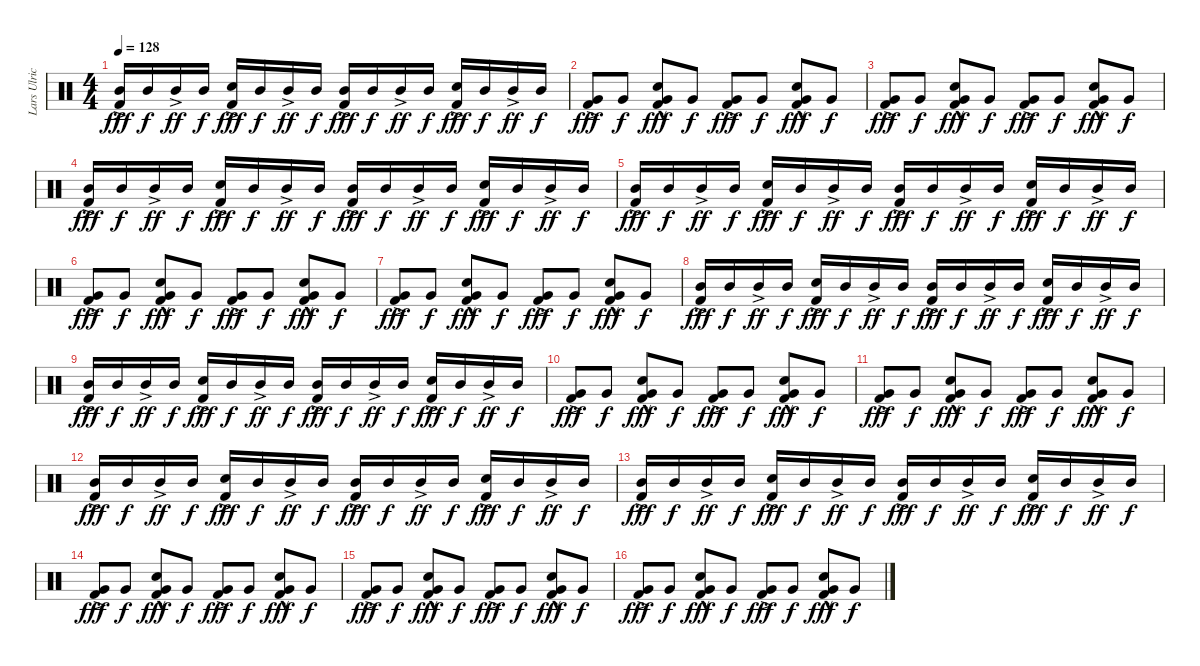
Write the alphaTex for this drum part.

\track ("Lars Ulrich (Drums)" "Lars Ulric") {instrument percussion}
\staff {score}
\articulation defaults
\ts (4 4)
\tempo 128
\clef neutral
\ks c
("Mid Tom (hit)"{ac} "Kick (hit) 2").16{dy fff} "Mid Tom (hit)".16{dy f} "Mid Tom (hit)"{ac}.16{dy ff} "Mid Tom (hit)".16{dy f} ("Electric Snare (hit)"{ac} "Kick (hit) 2").16{dy fff} "Mid Tom (hit)".16{dy f} "Mid Tom (hit)"{ac}.16{dy ff} "Mid Tom (hit)".16{dy f} ("Mid Tom (hit)"{ac} "Kick (hit) 2").16{dy fff} "Mid Tom (hit)".16{dy f} "Mid Tom (hit)"{ac}.16{dy ff} "Mid Tom (hit)".16{dy f} ("Electric Snare (hit)"{ac} "Kick (hit) 2").16{dy fff} "Mid Tom (hit)".16{dy f} "Mid Tom (hit)"{ac}.16{dy ff} "Mid Tom (hit)".16{dy f} |
("Very Low Tom (hit)"{ac} "Kick (hit) 2").8{dy fff} "Very Low Tom (hit)".8{dy f} ("Electric Snare (hit)"{hac} "Very Low Tom (hit)"{hac} "Kick (hit) 2").8{dy fff} "Very Low Tom (hit)".8{dy f} ("Very Low Tom (hit)"{ac} "Kick (hit) 2").8{dy fff} "Very Low Tom (hit)".8{dy f} ("Electric Snare (hit)"{hac} "Very Low Tom (hit)"{hac} "Kick (hit) 2").8{dy fff} "Very Low Tom (hit)".8{dy f} |
("Very Low Tom (hit)"{ac} "Kick (hit) 2").8{dy fff} "Very Low Tom (hit)".8{dy f} ("Electric Snare (hit)"{hac} "Very Low Tom (hit)"{hac} "Kick (hit) 2").8{dy fff} "Very Low Tom (hit)".8{dy f} ("Very Low Tom (hit)"{ac} "Kick (hit) 2").8{dy fff} "Very Low Tom (hit)".8{dy f} ("Electric Snare (hit)"{hac} "Very Low Tom (hit)"{hac} "Kick (hit) 2").8{dy fff} "Very Low Tom (hit)".8{dy f} |
("Mid Tom (hit)"{ac} "Kick (hit) 2").16{dy fff} "Mid Tom (hit)".16{dy f} "Mid Tom (hit)"{ac}.16{dy ff} "Mid Tom (hit)".16{dy f} ("Electric Snare (hit)"{ac} "Kick (hit) 2").16{dy fff} "Mid Tom (hit)".16{dy f} "Mid Tom (hit)"{ac}.16{dy ff} "Mid Tom (hit)".16{dy f} ("Mid Tom (hit)"{ac} "Kick (hit) 2").16{dy fff} "Mid Tom (hit)".16{dy f} "Mid Tom (hit)"{ac}.16{dy ff} "Mid Tom (hit)".16{dy f} ("Electric Snare (hit)"{ac} "Kick (hit) 2").16{dy fff} "Mid Tom (hit)".16{dy f} "Mid Tom (hit)"{ac}.16{dy ff} "Mid Tom (hit)".16{dy f} |
("Mid Tom (hit)"{ac} "Kick (hit) 2").16{dy fff} "Mid Tom (hit)".16{dy f} "Mid Tom (hit)"{ac}.16{dy ff} "Mid Tom (hit)".16{dy f} ("Electric Snare (hit)"{ac} "Kick (hit) 2").16{dy fff} "Mid Tom (hit)".16{dy f} "Mid Tom (hit)"{ac}.16{dy ff} "Mid Tom (hit)".16{dy f} ("Mid Tom (hit)"{ac} "Kick (hit) 2").16{dy fff} "Mid Tom (hit)".16{dy f} "Mid Tom (hit)"{ac}.16{dy ff} "Mid Tom (hit)".16{dy f} ("Electric Snare (hit)"{ac} "Kick (hit) 2").16{dy fff} "Mid Tom (hit)".16{dy f} "Mid Tom (hit)"{ac}.16{dy ff} "Mid Tom (hit)".16{dy f} |
("Very Low Tom (hit)"{ac} "Kick (hit) 2").8{dy fff} "Very Low Tom (hit)".8{dy f} ("Electric Snare (hit)"{hac} "Very Low Tom (hit)"{hac} "Kick (hit) 2").8{dy fff} "Very Low Tom (hit)".8{dy f} ("Very Low Tom (hit)"{ac} "Kick (hit) 2").8{dy fff} "Very Low Tom (hit)".8{dy f} ("Electric Snare (hit)"{hac} "Very Low Tom (hit)"{hac} "Kick (hit) 2").8{dy fff} "Very Low Tom (hit)".8{dy f} |
("Very Low Tom (hit)"{ac} "Kick (hit) 2").8{dy fff} "Very Low Tom (hit)".8{dy f} ("Electric Snare (hit)"{hac} "Very Low Tom (hit)"{hac} "Kick (hit) 2").8{dy fff} "Very Low Tom (hit)".8{dy f} ("Very Low Tom (hit)"{ac} "Kick (hit) 2").8{dy fff} "Very Low Tom (hit)".8{dy f} ("Electric Snare (hit)"{hac} "Very Low Tom (hit)"{hac} "Kick (hit) 2").8{dy fff} "Very Low Tom (hit)".8{dy f} |
("Mid Tom (hit)"{ac} "Kick (hit) 2").16{dy fff} "Mid Tom (hit)".16{dy f} "Mid Tom (hit)"{ac}.16{dy ff} "Mid Tom (hit)".16{dy f} ("Electric Snare (hit)"{ac} "Kick (hit) 2").16{dy fff} "Mid Tom (hit)".16{dy f} "Mid Tom (hit)"{ac}.16{dy ff} "Mid Tom (hit)".16{dy f} ("Mid Tom (hit)"{ac} "Kick (hit) 2").16{dy fff} "Mid Tom (hit)".16{dy f} "Mid Tom (hit)"{ac}.16{dy ff} "Mid Tom (hit)".16{dy f} ("Electric Snare (hit)"{ac} "Kick (hit) 2").16{dy fff} "Mid Tom (hit)".16{dy f} "Mid Tom (hit)"{ac}.16{dy ff} "Mid Tom (hit)".16{dy f} |
("Mid Tom (hit)"{ac} "Kick (hit) 2").16{dy fff} "Mid Tom (hit)".16{dy f} "Mid Tom (hit)"{ac}.16{dy ff} "Mid Tom (hit)".16{dy f} ("Electric Snare (hit)"{ac} "Kick (hit) 2").16{dy fff} "Mid Tom (hit)".16{dy f} "Mid Tom (hit)"{ac}.16{dy ff} "Mid Tom (hit)".16{dy f} ("Mid Tom (hit)"{ac} "Kick (hit) 2").16{dy fff} "Mid Tom (hit)".16{dy f} "Mid Tom (hit)"{ac}.16{dy ff} "Mid Tom (hit)".16{dy f} ("Electric Snare (hit)"{ac} "Kick (hit) 2").16{dy fff} "Mid Tom (hit)".16{dy f} "Mid Tom (hit)"{ac}.16{dy ff} "Mid Tom (hit)".16{dy f} |
("Very Low Tom (hit)"{ac} "Kick (hit) 2").8{dy fff} "Very Low Tom (hit)".8{dy f} ("Electric Snare (hit)"{hac} "Very Low Tom (hit)"{hac} "Kick (hit) 2").8{dy fff} "Very Low Tom (hit)".8{dy f} ("Very Low Tom (hit)"{ac} "Kick (hit) 2").8{dy fff} "Very Low Tom (hit)".8{dy f} ("Electric Snare (hit)"{hac} "Very Low Tom (hit)"{hac} "Kick (hit) 2").8{dy fff} "Very Low Tom (hit)".8{dy f} |
("Very Low Tom (hit)"{ac} "Kick (hit) 2").8{dy fff} "Very Low Tom (hit)".8{dy f} ("Electric Snare (hit)"{hac} "Very Low Tom (hit)"{hac} "Kick (hit) 2").8{dy fff} "Very Low Tom (hit)".8{dy f} ("Very Low Tom (hit)"{ac} "Kick (hit) 2").8{dy fff} "Very Low Tom (hit)".8{dy f} ("Electric Snare (hit)"{hac} "Very Low Tom (hit)"{hac} "Kick (hit) 2").8{dy fff} "Very Low Tom (hit)".8{dy f} |
("Mid Tom (hit)"{ac} "Kick (hit) 2").16{dy fff} "Mid Tom (hit)".16{dy f} "Mid Tom (hit)"{ac}.16{dy ff} "Mid Tom (hit)".16{dy f} ("Electric Snare (hit)"{ac} "Kick (hit) 2").16{dy fff} "Mid Tom (hit)".16{dy f} "Mid Tom (hit)"{ac}.16{dy ff} "Mid Tom (hit)".16{dy f} ("Mid Tom (hit)"{ac} "Kick (hit) 2").16{dy fff} "Mid Tom (hit)".16{dy f} "Mid Tom (hit)"{ac}.16{dy ff} "Mid Tom (hit)".16{dy f} ("Electric Snare (hit)"{ac} "Kick (hit) 2").16{dy fff} "Mid Tom (hit)".16{dy f} "Mid Tom (hit)"{ac}.16{dy ff} "Mid Tom (hit)".16{dy f} |
("Mid Tom (hit)"{ac} "Kick (hit) 2").16{dy fff} "Mid Tom (hit)".16{dy f} "Mid Tom (hit)"{ac}.16{dy ff} "Mid Tom (hit)".16{dy f} ("Electric Snare (hit)"{ac} "Kick (hit) 2").16{dy fff} "Mid Tom (hit)".16{dy f} "Mid Tom (hit)"{ac}.16{dy ff} "Mid Tom (hit)".16{dy f} ("Mid Tom (hit)"{ac} "Kick (hit) 2").16{dy fff} "Mid Tom (hit)".16{dy f} "Mid Tom (hit)"{ac}.16{dy ff} "Mid Tom (hit)".16{dy f} ("Electric Snare (hit)"{ac} "Kick (hit) 2").16{dy fff} "Mid Tom (hit)".16{dy f} "Mid Tom (hit)"{ac}.16{dy ff} "Mid Tom (hit)".16{dy f} |
("Very Low Tom (hit)"{ac} "Kick (hit) 2").8{dy fff} "Very Low Tom (hit)".8{dy f} ("Electric Snare (hit)"{hac} "Very Low Tom (hit)"{hac} "Kick (hit) 2").8{dy fff} "Very Low Tom (hit)".8{dy f} ("Very Low Tom (hit)"{ac} "Kick (hit) 2").8{dy fff} "Very Low Tom (hit)".8{dy f} ("Electric Snare (hit)"{hac} "Very Low Tom (hit)"{hac} "Kick (hit) 2").8{dy fff} "Very Low Tom (hit)".8{dy f} |
("Very Low Tom (hit)"{ac} "Kick (hit) 2").8{dy fff} "Very Low Tom (hit)".8{dy f} ("Electric Snare (hit)"{hac} "Very Low Tom (hit)"{hac} "Kick (hit) 2").8{dy fff} "Very Low Tom (hit)".8{dy f} ("Very Low Tom (hit)"{ac} "Kick (hit) 2").8{dy fff} "Very Low Tom (hit)".8{dy f} ("Electric Snare (hit)"{hac} "Very Low Tom (hit)"{hac} "Kick (hit) 2").8{dy fff} "Very Low Tom (hit)".8{dy f} |
("Very Low Tom (hit)"{ac} "Kick (hit) 2").8{dy fff} "Very Low Tom (hit)".8{dy f} ("Electric Snare (hit)"{hac} "Very Low Tom (hit)"{hac} "Kick (hit) 2").8{dy fff} "Very Low Tom (hit)".8{dy f} ("Very Low Tom (hit)"{ac} "Kick (hit) 2").8{dy fff} "Very Low Tom (hit)".8{dy f} ("Electric Snare (hit)"{hac} "Very Low Tom (hit)"{hac} "Kick (hit) 2").8{dy fff} "Very Low Tom (hit)".8{dy f}
